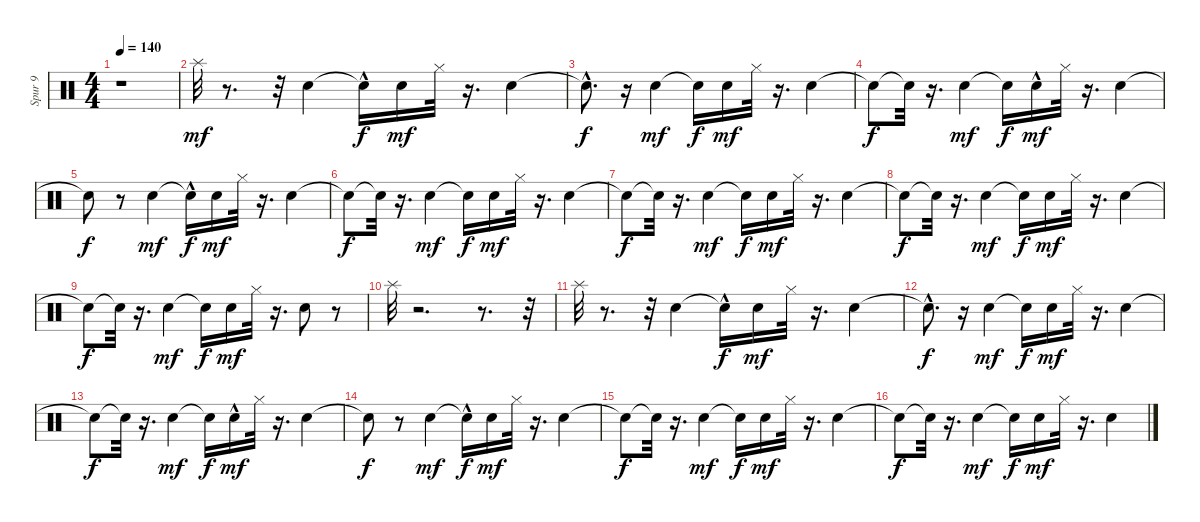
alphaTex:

\track ("Spur 9" "Spur 9") {instrument percussion}
\staff {score}
\articulation defaults
\ts (4 4)
\tempo 140
\clef neutral
\ks c
r.1{dy mf} |
"Splash (hit)".32 r.8{d} r.32 "Electric Snare (hit)".4 "Snare (hit)"{hac t}.16{dy f} "Snare (hit)".16{dy mf} "Hi-Hat (closed)".32 r.16{d} "Electric Snare (hit)".4 |
"Snare (hit)"{hac t}.8{d dy f} r.16 "Electric Snare (hit)".4{dy mf} "Snare (hit)"{t}.16{dy f} "Snare (hit)".16{dy mf} "Hi-Hat (closed)".32 r.16{d} "Electric Snare (hit)".4 |
"Snare (hit)"{t}.8{dy f} "Snare (hit)"{t}.32 r.16{d} "Electric Snare (hit)".4{dy mf} "Snare (hit)"{t}.16{dy f} "Snare (hit)"{hac}.16{dy mf} "Hi-Hat (closed)".32 r.16{d} "Electric Snare (hit)".4 |
"Snare (hit)"{t}.8{dy f} r.8 "Electric Snare (hit)".4{dy mf} "Snare (hit)"{hac t}.16{dy f} "Snare (hit)".16{dy mf} "Hi-Hat (closed)".32 r.16{d} "Electric Snare (hit)".4 |
"Snare (hit)"{t}.8{dy f} "Snare (hit)"{t}.32 r.16{d} "Electric Snare (hit)".4{dy mf} "Snare (hit)"{t}.16{dy f} "Snare (hit)".16{dy mf} "Hi-Hat (closed)".32 r.16{d} "Electric Snare (hit)".4 |
"Snare (hit)"{t}.8{dy f} "Snare (hit)"{t}.32 r.16{d} "Electric Snare (hit)".4{dy mf} "Snare (hit)"{t}.16{dy f} "Snare (hit)".16{dy mf} "Hi-Hat (closed)".32 r.16{d} "Electric Snare (hit)".4 |
"Snare (hit)"{t}.8{dy f} "Snare (hit)"{t}.32 r.16{d} "Electric Snare (hit)".4{dy mf} "Snare (hit)"{t}.16{dy f} "Snare (hit)".16{dy mf} "Hi-Hat (closed)".32 r.16{d} "Electric Snare (hit)".4 |
"Snare (hit)"{t}.8{dy f} "Snare (hit)"{t}.32 r.16{d} "Electric Snare (hit)".4{dy mf} "Snare (hit)"{t}.16{dy f} "Snare (hit)".16{dy mf} "Hi-Hat (closed)".32 r.16{d} "Electric Snare (hit)".8 r.8 |
"Splash (hit)".32 r.2{d} r.8{d} r.32 |
"Splash (hit)".32 r.8{d} r.32 "Electric Snare (hit)".4 "Snare (hit)"{hac t}.16{dy f} "Snare (hit)".16{dy mf} "Hi-Hat (closed)".32 r.16{d} "Electric Snare (hit)".4 |
"Snare (hit)"{hac t}.8{d dy f} r.16 "Electric Snare (hit)".4{dy mf} "Snare (hit)"{t}.16{dy f} "Snare (hit)".16{dy mf} "Hi-Hat (closed)".32 r.16{d} "Electric Snare (hit)".4 |
"Snare (hit)"{t}.8{dy f} "Snare (hit)"{t}.32 r.16{d} "Electric Snare (hit)".4{dy mf} "Snare (hit)"{t}.16{dy f} "Snare (hit)"{hac}.16{dy mf} "Hi-Hat (closed)".32 r.16{d} "Electric Snare (hit)".4 |
"Snare (hit)"{t}.8{dy f} r.8 "Electric Snare (hit)".4{dy mf} "Snare (hit)"{hac t}.16{dy f} "Snare (hit)".16{dy mf} "Hi-Hat (closed)".32 r.16{d} "Electric Snare (hit)".4 |
"Snare (hit)"{t}.8{dy f} "Snare (hit)"{t}.32 r.16{d} "Electric Snare (hit)".4{dy mf} "Snare (hit)"{t}.16{dy f} "Snare (hit)".16{dy mf} "Hi-Hat (closed)".32 r.16{d} "Electric Snare (hit)".4 |
"Snare (hit)"{t}.8{dy f} "Snare (hit)"{t}.32 r.16{d} "Electric Snare (hit)".4{dy mf} "Snare (hit)"{t}.16{dy f} "Snare (hit)".16{dy mf} "Hi-Hat (closed)".32 r.16{d} "Electric Snare (hit)".4
